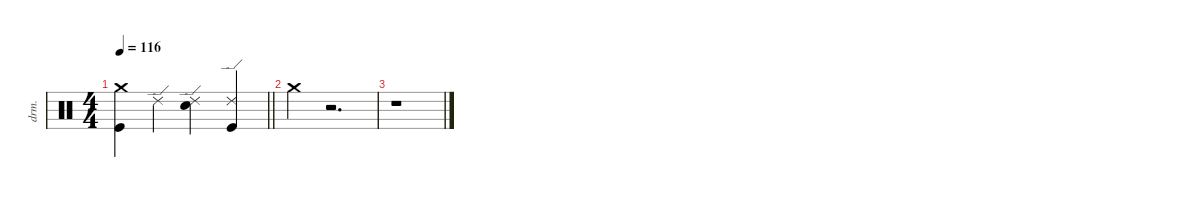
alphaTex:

\defaultSystemsLayout 4
\hideDynamics
\bracketExtendMode nobrackets
\otherSystemsTrackNameOrientation horizontal
\track ("Drum" "drm.") {instrument percussion}
\staff {score}
\articulation defaults
\ts (4 4)
\tempo 116
\clef neutral
\barLineRight lightlight
\ks c
("Kick (hit)" "Crash medium (hit)").4{dy f beam Down} "Ride (edge) 2".4{beam Down} ("Snare (hit) 2" "Ride (edge) 2").4{beam Down} ("Kick (hit)" "Ride (edge) 2").4{beam Up} |
"Crash medium (hit)".4{beam Down} r.2{d beam Down} |
r.1{beam Down}
